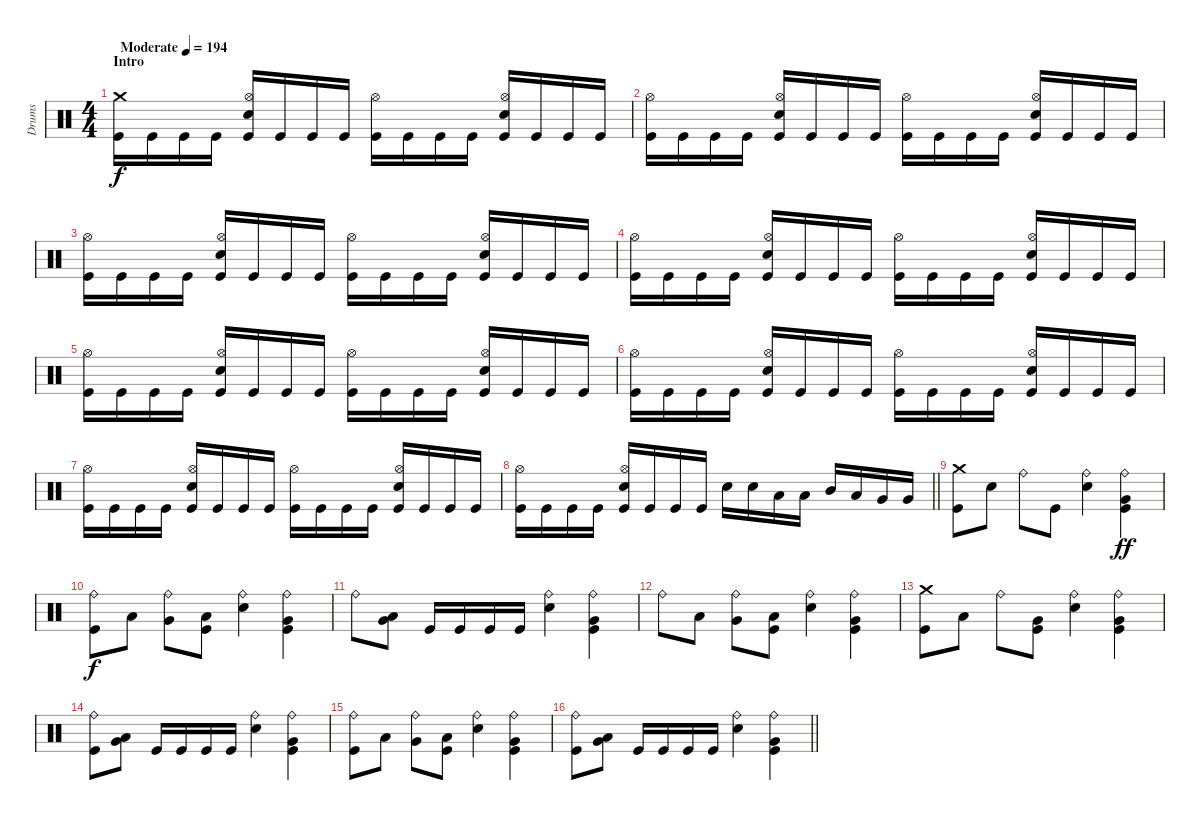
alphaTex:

\track ("Drums" "Drums") {instrument percussion}
\staff {score}
\articulation defaults
\ts (4 4)
\section ("" "Intro")
\tempo (194 "Moderate")
\clef neutral
\ks c
("Crash medium (hit)" "Kick (hit)").16{dy f} "Kick (hit)".16 "Kick (hit)".16 "Kick (hit)".16 ("Hi-Hat (open)" "Snare (hit) 2" "Kick (hit)").16 "Kick (hit)".16 "Kick (hit)".16 "Kick (hit)".16 ("Hi-Hat (open)" "Kick (hit)").16 "Kick (hit)".16 "Kick (hit)".16 "Kick (hit)".16 ("Hi-Hat (open)" "Snare (hit) 2" "Kick (hit)").16 "Kick (hit)".16 "Kick (hit)".16 "Kick (hit)".16 |
("Hi-Hat (open)" "Kick (hit)").16 "Kick (hit)".16 "Kick (hit)".16 "Kick (hit)".16 ("Hi-Hat (open)" "Snare (hit) 2" "Kick (hit)").16 "Kick (hit)".16 "Kick (hit)".16 "Kick (hit)".16 ("Hi-Hat (open)" "Kick (hit)").16 "Kick (hit)".16 "Kick (hit)".16 "Kick (hit)".16 ("Hi-Hat (open)" "Snare (hit) 2" "Kick (hit)").16 "Kick (hit)".16 "Kick (hit)".16 "Kick (hit)".16 |
("Hi-Hat (open)" "Kick (hit)").16 "Kick (hit)".16 "Kick (hit)".16 "Kick (hit)".16 ("Hi-Hat (open)" "Snare (hit) 2" "Kick (hit)").16 "Kick (hit)".16 "Kick (hit)".16 "Kick (hit)".16 ("Hi-Hat (open)" "Kick (hit)").16 "Kick (hit)".16 "Kick (hit)".16 "Kick (hit)".16 ("Hi-Hat (open)" "Snare (hit) 2" "Kick (hit)").16 "Kick (hit)".16 "Kick (hit)".16 "Kick (hit)".16 |
("Hi-Hat (open)" "Kick (hit)").16 "Kick (hit)".16 "Kick (hit)".16 "Kick (hit)".16 ("Hi-Hat (open)" "Snare (hit) 2" "Kick (hit)").16 "Kick (hit)".16 "Kick (hit)".16 "Kick (hit)".16 ("Hi-Hat (open)" "Kick (hit)").16 "Kick (hit)".16 "Kick (hit)".16 "Kick (hit)".16 ("Hi-Hat (open)" "Snare (hit) 2" "Kick (hit)").16 "Kick (hit)".16 "Kick (hit)".16 "Kick (hit)".16 |
("Hi-Hat (open)" "Kick (hit)").16 "Kick (hit)".16 "Kick (hit)".16 "Kick (hit)".16 ("Hi-Hat (open)" "Snare (hit) 2" "Kick (hit)").16 "Kick (hit)".16 "Kick (hit)".16 "Kick (hit)".16 ("Hi-Hat (open)" "Kick (hit)").16 "Kick (hit)".16 "Kick (hit)".16 "Kick (hit)".16 ("Hi-Hat (open)" "Snare (hit) 2" "Kick (hit)").16 "Kick (hit)".16 "Kick (hit)".16 "Kick (hit)".16 |
("Hi-Hat (open)" "Kick (hit)").16 "Kick (hit)".16 "Kick (hit)".16 "Kick (hit)".16 ("Hi-Hat (open)" "Snare (hit) 2" "Kick (hit)").16 "Kick (hit)".16 "Kick (hit)".16 "Kick (hit)".16 ("Hi-Hat (open)" "Kick (hit)").16 "Kick (hit)".16 "Kick (hit)".16 "Kick (hit)".16 ("Hi-Hat (open)" "Snare (hit) 2" "Kick (hit)").16 "Kick (hit)".16 "Kick (hit)".16 "Kick (hit)".16 |
("Hi-Hat (open)" "Kick (hit)").16 "Kick (hit)".16 "Kick (hit)".16 "Kick (hit)".16 ("Hi-Hat (open)" "Snare (hit) 2" "Kick (hit)").16 "Kick (hit)".16 "Kick (hit)".16 "Kick (hit)".16 ("Hi-Hat (open)" "Kick (hit)").16 "Kick (hit)".16 "Kick (hit)".16 "Kick (hit)".16 ("Hi-Hat (open)" "Snare (hit) 2" "Kick (hit)").16 "Kick (hit)".16 "Kick (hit)".16 "Kick (hit)".16 |
\barLineRight lightlight
("Hi-Hat (open)" "Kick (hit)").16 "Kick (hit)".16 "Kick (hit)".16 "Kick (hit)".16 ("Hi-Hat (open)" "Snare (hit) 2" "Kick (hit)").16 "Kick (hit)".16 "Kick (hit)".16 "Kick (hit)".16 "Snare (hit) 2".16 "Snare (hit) 2".16 "Low Tom (hit)".16 "Low Tom (hit)".16 "Mid Tom (hit)".16 "Low Tom (hit)".16 "Very Low Tom (hit)".16 "Very Low Tom (hit)".16 |
("Crash medium (hit)" "Kick (hit)").8 "Snare (hit) 2".8 "Ride (bell)".8 "Kick (hit)".8 ("Ride (bell)" "Snare (hit) 2").4 ("Ride (bell)" "Very Low Tom (hit)" "Kick (hit)").4{dy ff} |
("Ride (bell)" "Kick (hit)").8{dy f} "Low Tom (hit)".8 ("Ride (bell)" "Very Low Tom (hit)").8 ("Low Floor Tom (hit)" "Kick (hit)").8 ("Ride (bell)" "Snare (hit) 2").4 ("Ride (bell)" "Very Low Tom (hit)" "Kick (hit)").4 |
"Ride (bell)".8 ("Low Tom (hit)" "Very Low Tom (hit)").8 "Kick (hit)".16 "Kick (hit)".16 "Kick (hit)".16 "Kick (hit)".16 ("Ride (bell)" "Snare (hit) 2").4 ("Ride (bell)" "Very Low Tom (hit)" "Kick (hit)").4 |
"Ride (bell)".8 "Low Tom (hit)".8 ("Ride (bell)" "Very Low Tom (hit)").8 ("Low Floor Tom (hit)" "Kick (hit)").8 ("Ride (bell)" "Snare (hit) 2").4 ("Ride (bell)" "Very Low Tom (hit)" "Kick (hit)").4 |
("Crash medium (hit)" "Kick (hit)").8 "Low Tom (hit)".8 "Ride (bell)".8 ("Very Low Tom (hit)" "Kick (hit)").8 ("Ride (bell)" "Snare (hit) 2").4 ("Ride (bell)" "Very Low Tom (hit)" "Kick (hit)").4 |
("Ride (bell)" "Kick (hit)").8 ("Low Tom (hit)" "Very Low Tom (hit)").8 "Kick (hit)".16 "Kick (hit)".16 "Kick (hit)".16 "Kick (hit)".16 ("Ride (bell)" "Snare (hit) 2").4 ("Ride (bell)" "Very Low Tom (hit)" "Kick (hit)").4 |
("Ride (bell)" "Kick (hit)").8 "Low Tom (hit)".8 ("Ride (bell)" "Very Low Tom (hit)").8 ("Low Floor Tom (hit)" "Kick (hit)").8 ("Ride (bell)" "Snare (hit) 2").4 ("Ride (bell)" "Very Low Tom (hit)" "Kick (hit)").4 |
\barLineRight lightlight
("Ride (bell)" "Kick (hit)").8 ("Low Tom (hit)" "Very Low Tom (hit)").8 "Kick (hit)".16 "Kick (hit)".16 "Kick (hit)".16 "Kick (hit)".16 ("Ride (bell)" "Snare (hit) 2").4 ("Ride (bell)" "Very Low Tom (hit)" "Kick (hit)").4
